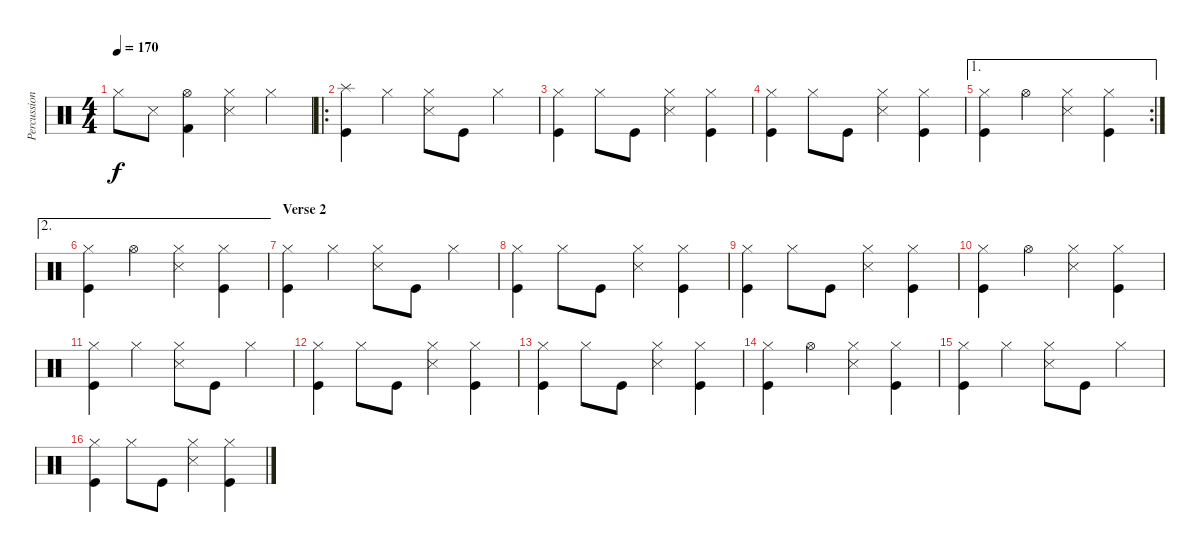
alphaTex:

\track ("Percussion" "Percussion") {instrument percussion}
\staff {score}
\articulation defaults
\ts (4 4)
\tempo 170
\clef neutral
\ks c "Hi-Hat (closed)".8{dy f} "Snare (side stick) 3".8
("Hi-Hat (open)" "Kick (hit) 2").4 ("Hi-Hat (closed)" "Snare (side stick) 3").4 "Hi-Hat (closed)".4 |
\ro
\section ("" "")
("Splash (hit)" "Kick (hit)").4 "Hi-Hat (closed)".4 ("Hi-Hat (closed)" "Snare (side stick) 3").8 "Kick (hit)".8 "Hi-Hat (closed)".4 |
("Hi-Hat (closed)" "Kick (hit)").4 "Hi-Hat (closed)".8 "Kick (hit)".8 ("Hi-Hat (closed)" "Snare (side stick) 3").4 ("Hi-Hat (closed)" "Kick (hit)").4 |
("Hi-Hat (closed)" "Kick (hit)").4 "Hi-Hat (closed)".8 "Kick (hit)".8 ("Hi-Hat (closed)" "Snare (side stick) 3").4 ("Hi-Hat (closed)" "Kick (hit)").4 |
\ae 1
\rc 2
("Hi-Hat (closed)" "Kick (hit)").4 "Hi-Hat (open)".4 ("Hi-Hat (closed)" "Snare (side stick) 3").4 ("Hi-Hat (closed)" "Kick (hit)").4 |
\ae 2
("Hi-Hat (closed)" "Kick (hit)").4 "Hi-Hat (open)".4 ("Hi-Hat (closed)" "Snare (side stick) 3").4 ("Hi-Hat (closed)" "Kick (hit)").4 |
\section ("" "Verse 2")
("Hi-Hat (closed)" "Kick (hit)").4 "Hi-Hat (closed)".4 ("Hi-Hat (closed)" "Snare (side stick) 3").8 "Kick (hit)".8 "Hi-Hat (closed)".4 |
("Hi-Hat (closed)" "Kick (hit)").4 "Hi-Hat (closed)".8 "Kick (hit)".8 ("Hi-Hat (closed)" "Snare (side stick) 3").4 ("Hi-Hat (closed)" "Kick (hit)").4 |
("Hi-Hat (closed)" "Kick (hit)").4 "Hi-Hat (closed)".8 "Kick (hit)".8 ("Hi-Hat (closed)" "Snare (side stick) 3").4 ("Hi-Hat (closed)" "Kick (hit)").4 |
("Hi-Hat (closed)" "Kick (hit)").4 "Hi-Hat (open)".4 ("Hi-Hat (closed)" "Snare (side stick) 3").4 ("Hi-Hat (closed)" "Kick (hit)").4 |
("Hi-Hat (closed)" "Kick (hit)").4 "Hi-Hat (closed)".4 ("Hi-Hat (closed)" "Snare (side stick) 3").8 "Kick (hit)".8 "Hi-Hat (closed)".4 |
("Hi-Hat (closed)" "Kick (hit)").4 "Hi-Hat (closed)".8 "Kick (hit)".8 ("Hi-Hat (closed)" "Snare (side stick) 3").4 ("Hi-Hat (closed)" "Kick (hit)").4 |
("Hi-Hat (closed)" "Kick (hit)").4 "Hi-Hat (closed)".8 "Kick (hit)".8 ("Hi-Hat (closed)" "Snare (side stick) 3").4 ("Hi-Hat (closed)" "Kick (hit)").4 |
("Hi-Hat (closed)" "Kick (hit)").4 "Hi-Hat (open)".4 ("Hi-Hat (closed)" "Snare (side stick) 3").4 ("Hi-Hat (closed)" "Kick (hit)").4 |
("Hi-Hat (closed)" "Kick (hit)").4 "Hi-Hat (closed)".4 ("Hi-Hat (closed)" "Snare (side stick) 3").8 "Kick (hit)".8 "Hi-Hat (closed)".4 |
("Hi-Hat (closed)" "Kick (hit)").4 "Hi-Hat (closed)".8 "Kick (hit)".8 ("Hi-Hat (closed)" "Snare (side stick) 3").4 ("Hi-Hat (closed)" "Kick (hit)").4
